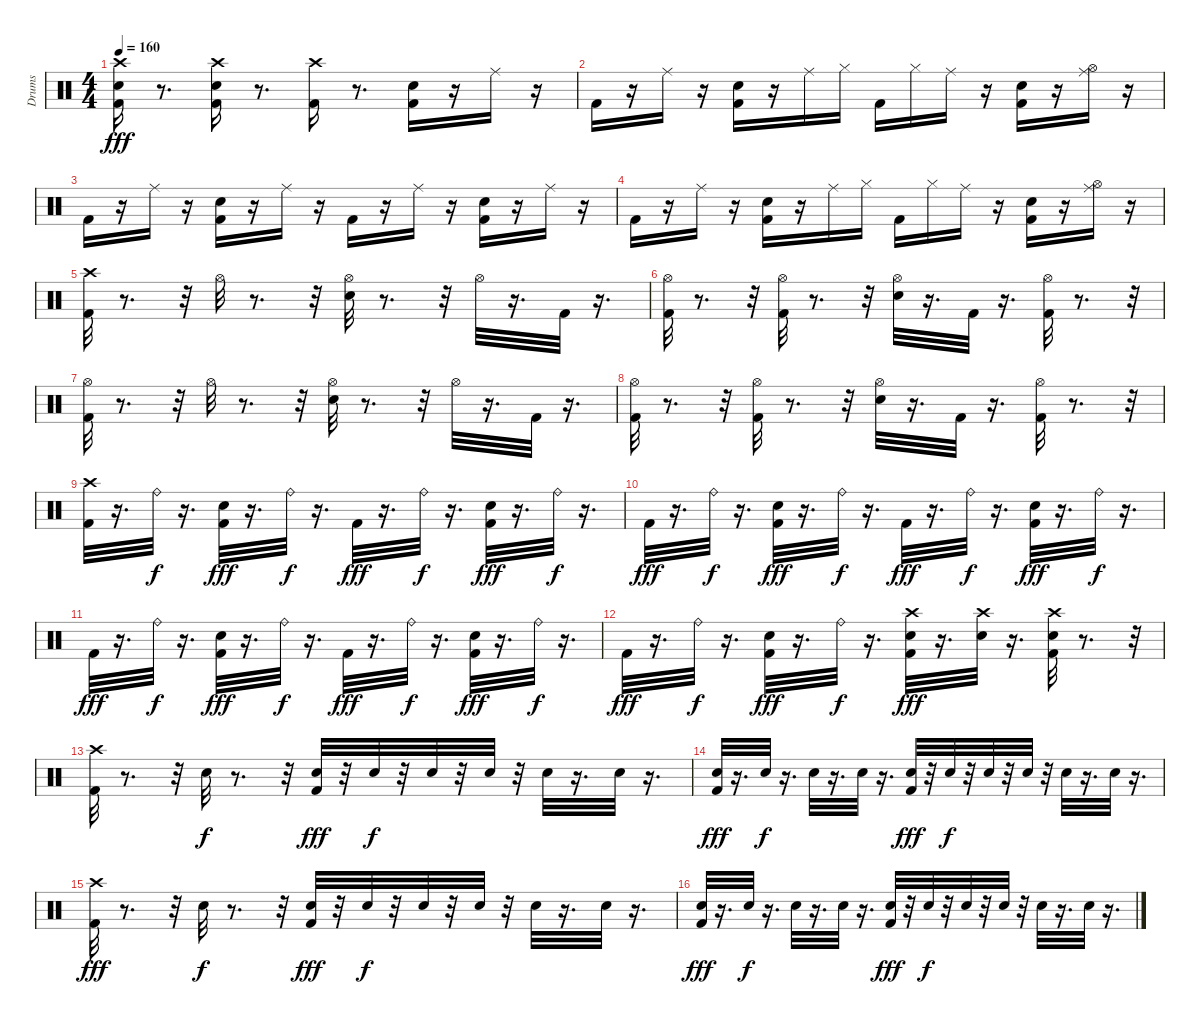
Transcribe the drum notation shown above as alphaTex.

\track ("Drums" "Drums") {instrument percussion}
\staff {score}
\articulation defaults
\ts (4 4)
\tempo 160
\clef neutral
\ks c
("Electric Snare (hit)" "Kick (hit) 2" "Crash high (hit)").16{dy fff} r.8{d} ("Crash high (hit)" "Electric Snare (hit)" "Kick (hit) 2").16 r.8{d} ("Crash high (hit)" "Kick (hit) 2").16 r.8{d} ("Kick (hit) 2" "Electric Snare (hit)").16 r.16 "Ride (middle)".16 r.16 |
"Kick (hit) 2".16 r.16 "Ride (middle)".16 r.16 ("Electric Snare (hit)" "Kick (hit) 2").16 r.16 "Ride (middle)".16 "Hi-Hat (closed)".16 "Kick (hit) 2".16 "Hi-Hat (closed)".16 "Ride (middle)".16 r.16 ("Electric Snare (hit)" "Kick (hit) 2").16 r.16 ("Hi-Hat (open)" "Ride (middle)").16 r.16 |
"Kick (hit) 2".16 r.16 "Ride (middle)".16 r.16 ("Kick (hit) 2" "Electric Snare (hit)").16 r.16 "Ride (middle)".16 r.16 "Kick (hit) 2".16 r.16 "Ride (middle)".16 r.16 ("Electric Snare (hit)" "Kick (hit) 2").16 r.16 "Ride (middle)".16 r.16 |
"Kick (hit) 2".16 r.16 "Ride (middle)".16 r.16 ("Kick (hit) 2" "Electric Snare (hit)").16 r.16 "Ride (middle)".16 "Hi-Hat (closed)".16 "Kick (hit) 2".16 "Hi-Hat (closed)".16 "Ride (middle)".16 r.16 ("Kick (hit) 2" "Electric Snare (hit)").16 r.16 ("Hi-Hat (open)" "Ride (middle)").16 r.16 |
("Crash high (hit)" "Kick (hit) 2").32 r.8{d} r.32 "Hi-Hat (open)".32 r.8{d} r.32 ("Hi-Hat (open)" "Electric Snare (hit)").32 r.8{d} r.32 "Hi-Hat (open)".32 r.16{d} "Kick (hit) 2".32 r.16{d} |
("Hi-Hat (open)" "Kick (hit) 2").32 r.8{d} r.32 ("Hi-Hat (open)" "Kick (hit) 2").32 r.8{d} r.32 ("Hi-Hat (open)" "Electric Snare (hit)").32 r.16{d} "Kick (hit) 2".32 r.16{d} ("Hi-Hat (open)" "Kick (hit) 2").32 r.8{d} r.32 |
("Kick (hit) 2" "Hi-Hat (open)").32 r.8{d} r.32 "Hi-Hat (open)".32 r.8{d} r.32 ("Electric Snare (hit)" "Hi-Hat (open)").32 r.8{d} r.32 "Hi-Hat (open)".32 r.16{d} "Kick (hit) 2".32 r.16{d} |
("Hi-Hat (open)" "Kick (hit) 2").32 r.8{d} r.32 ("Kick (hit) 2" "Hi-Hat (open)").32 r.8{d} r.32 ("Hi-Hat (open)" "Electric Snare (hit)").32 r.16{d} "Kick (hit) 2".32 r.16{d} ("Hi-Hat (open)" "Kick (hit) 2").32 r.8{d} r.32 |
("Crash high (hit)" "Kick (hit) 2").32 r.16{d} "Ride (bell)".32{dy f} r.16{d} ("Kick (hit) 2" "Electric Snare (hit)").32{dy fff} r.16{d} "Ride (bell)".32{dy f} r.16{d} "Kick (hit) 2".32{dy fff} r.16{d} "Ride (bell)".32{dy f} r.16{d} ("Electric Snare (hit)" "Kick (hit) 2").32{dy fff} r.16{d} "Ride (bell)".32{dy f} r.16{d} |
"Kick (hit) 2".32{dy fff} r.16{d} "Ride (bell)".32{dy f} r.16{d} ("Electric Snare (hit)" "Kick (hit) 2").32{dy fff} r.16{d} "Ride (bell)".32{dy f} r.16{d} "Kick (hit) 2".32{dy fff} r.16{d} "Ride (bell)".32{dy f} r.16{d} ("Electric Snare (hit)" "Kick (hit) 2").32{dy fff} r.16{d} "Ride (bell)".32{dy f} r.16{d} |
"Kick (hit) 2".32{dy fff} r.16{d} "Ride (bell)".32{dy f} r.16{d} ("Kick (hit) 2" "Electric Snare (hit)").32{dy fff} r.16{d} "Ride (bell)".32{dy f} r.16{d} "Kick (hit) 2".32{dy fff} r.16{d} "Ride (bell)".32{dy f} r.16{d} ("Electric Snare (hit)" "Kick (hit) 2").32{dy fff} r.16{d} "Ride (bell)".32{dy f} r.16{d} |
"Kick (hit) 2".32{dy fff} r.16{d} "Ride (bell)".32{dy f} r.16{d} ("Electric Snare (hit)" "Kick (hit) 2").32{dy fff} r.16{d} "Ride (bell)".32{dy f} r.16{d} ("Crash high (hit)" "Electric Snare (hit)" "Kick (hit) 2").32{dy fff} r.16{d} ("Crash high (hit)" "Electric Snare (hit)").32 r.16{d} ("Electric Snare (hit)" "Kick (hit) 2" "Crash high (hit)").32 r.8{d} r.32 |
("Kick (hit) 2" "Crash high (hit)").32 r.8{d} r.32 "Electric Snare (hit)".32{dy f} r.8{d} r.32 ("Electric Snare (hit)" "Kick (hit) 2").32{dy fff} r.32 "Electric Snare (hit)".32{dy f} r.32 "Electric Snare (hit)".32 r.32 "Electric Snare (hit)".32 r.32 "Electric Snare (hit)".32 r.16{d} "Electric Snare (hit)".32 r.16{d} |
("Electric Snare (hit)" "Kick (hit) 2").32{dy fff} r.16{d} "Electric Snare (hit)".32{dy f} r.16{d} "Electric Snare (hit)".32 r.16{d} "Electric Snare (hit)".32 r.16{d} ("Kick (hit) 2" "Electric Snare (hit)").32{dy fff} r.32 "Electric Snare (hit)".32{dy f} r.32 "Electric Snare (hit)".32 r.32 "Electric Snare (hit)".32 r.32 "Electric Snare (hit)".32 r.16{d} "Electric Snare (hit)".32 r.16{d} |
("Kick (hit) 2" "Crash high (hit)").32{dy fff} r.8{d} r.32 "Electric Snare (hit)".32{dy f} r.8{d} r.32 ("Electric Snare (hit)" "Kick (hit) 2").32{dy fff} r.32 "Electric Snare (hit)".32{dy f} r.32 "Electric Snare (hit)".32 r.32 "Electric Snare (hit)".32 r.32 "Electric Snare (hit)".32 r.16{d} "Electric Snare (hit)".32 r.16{d} |
("Electric Snare (hit)" "Kick (hit) 2").32{dy fff} r.16{d} "Electric Snare (hit)".32{dy f} r.16{d} "Electric Snare (hit)".32 r.16{d} "Electric Snare (hit)".32 r.16{d} ("Kick (hit) 2" "Electric Snare (hit)").32{dy fff} r.32 "Electric Snare (hit)".32{dy f} r.32 "Electric Snare (hit)".32 r.32 "Electric Snare (hit)".32 r.32 "Electric Snare (hit)".32 r.16{d} "Electric Snare (hit)".32 r.16{d}
